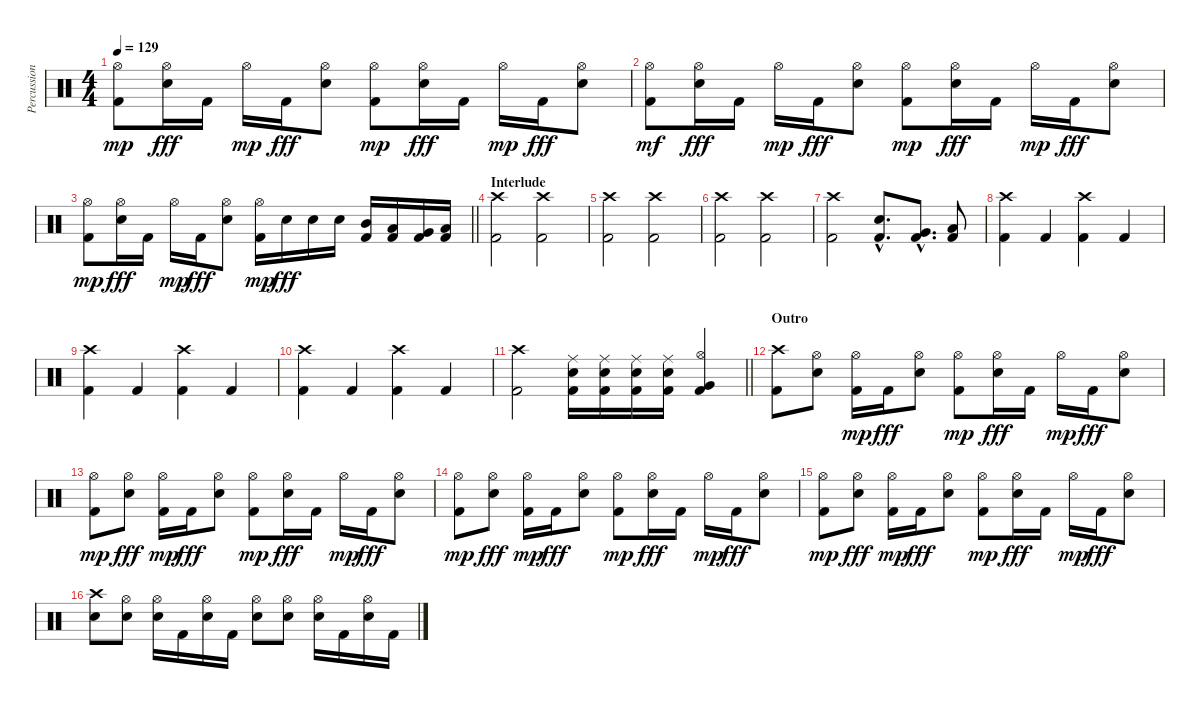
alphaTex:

\track ("Percussions" "Percussion") {instrument percussion}
\staff {score}
\articulation defaults
\ts (4 4)
\tempo 129
\clef neutral
\ks c
("Kick (hit) 2" "Hi-Hat (open)").8{dy mp} ("Snare (hit) 2" "Hi-Hat (open)").16{dy fff} "Kick (hit) 2".16 "Hi-Hat (open)".16{dy mp} "Kick (hit) 2".16{dy fff} ("Snare (hit) 2" "Hi-Hat (open)").8 ("Kick (hit) 2" "Hi-Hat (open)").8{dy mp} ("Snare (hit) 2" "Hi-Hat (open)").16{dy fff} "Kick (hit) 2".16 "Hi-Hat (open)".16{dy mp} "Kick (hit) 2".16{dy fff} ("Snare (hit) 2" "Hi-Hat (open)").8 |
("Kick (hit) 2" "Hi-Hat (open)").8{dy mf} ("Snare (hit) 2" "Hi-Hat (open)").16{dy fff} "Kick (hit) 2".16 "Hi-Hat (open)".16{dy mp} "Kick (hit) 2".16{dy fff} ("Snare (hit) 2" "Hi-Hat (open)").8 ("Kick (hit) 2" "Hi-Hat (open)").8{dy mp} ("Snare (hit) 2" "Hi-Hat (open)").16{dy fff} "Kick (hit) 2".16 "Hi-Hat (open)".16{dy mp} "Kick (hit) 2".16{dy fff} ("Snare (hit) 2" "Hi-Hat (open)").8 |
\barLineRight lightlight
("Kick (hit) 2" "Hi-Hat (open)").8{dy mp} ("Snare (hit) 2" "Hi-Hat (open)").16{dy fff} "Kick (hit) 2".16 "Hi-Hat (open)".16{dy mp} "Kick (hit) 2".16{dy fff} ("Snare (hit) 2" "Hi-Hat (open)").8 ("Kick (hit) 2" "Hi-Hat (open)").16{dy mp} "Snare (hit) 2".16{dy fff} "Snare (hit) 2".16 "Snare (hit) 2".16 ("Kick (hit) 2" "Mid Tom (hit)").16 ("Kick (hit) 2" "Low Tom (hit)").16 ("Kick (hit) 2" "Very Low Tom (hit)").16 ("Kick (hit) 2" "Low Floor Tom (hit)").16 |
\section ("" "Interlude")
("Kick (hit) 2" "Crash high (hit)").2 ("Kick (hit) 2" "Crash high (hit)").2 |
("Kick (hit) 2" "Crash high (hit)").2 ("Kick (hit) 2" "Crash high (hit)").2 |
("Kick (hit) 2" "Crash high (hit)").2 ("Kick (hit) 2" "Crash high (hit)").2 |
("Kick (hit) 2" "Crash high (hit)").2 ("Kick (hit) 2"{hac} "Snare (hit) 2"{hac}).8{d} ("Kick (hit) 2"{hac} "Very Low Tom (hit)"{hac}).8{d} ("Kick (hit) 2" "Low Floor Tom (hit)").8 |
("Kick (hit) 2" "Crash high (hit)").4 "Kick (hit) 2".4 ("Kick (hit) 2" "Crash high (hit)").4 "Kick (hit) 2".4 |
("Kick (hit) 2" "Crash high (hit)").4 "Kick (hit) 2".4 ("Kick (hit) 2" "Crash high (hit)").4 "Kick (hit) 2".4 |
("Kick (hit) 2" "Crash high (hit)").4 "Kick (hit) 2".4 ("Kick (hit) 2" "Crash high (hit)").4 "Kick (hit) 2".4 |
\barLineRight lightlight
("Kick (hit) 2" "Crash high (hit)").2 ("Kick (hit) 2" "Snare (hit) 2" "Ride (middle)").16 ("Kick (hit) 2" "Snare (hit) 2" "Ride (middle)").16 ("Kick (hit) 2" "Snare (hit) 2" "Ride (middle)").16 ("Kick (hit) 2" "Snare (hit) 2" "Ride (middle)").16 ("Kick (hit) 2" "Very Low Tom (hit)" "Hi-Hat (open)").4 |
\section ("" "Outro")
("Kick (hit) 2" "Crash high (hit)").8 ("Snare (hit) 2" "Hi-Hat (open)").8 ("Kick (hit) 2" "Hi-Hat (open)").16{dy mp} "Kick (hit) 2".16{dy fff} ("Snare (hit) 2" "Hi-Hat (open)").8 ("Kick (hit) 2" "Hi-Hat (open)").8{dy mp} ("Snare (hit) 2" "Hi-Hat (open)").16{dy fff} "Kick (hit) 2".16 "Hi-Hat (open)".16{dy mp} "Kick (hit) 2".16{dy fff} ("Snare (hit) 2" "Hi-Hat (open)").8 |
("Kick (hit) 2" "Hi-Hat (open)").8{dy mp} ("Snare (hit) 2" "Hi-Hat (open)").8{dy fff} ("Kick (hit) 2" "Hi-Hat (open)").16{dy mp} "Kick (hit) 2".16{dy fff} ("Snare (hit) 2" "Hi-Hat (open)").8 ("Kick (hit) 2" "Hi-Hat (open)").8{dy mp} ("Snare (hit) 2" "Hi-Hat (open)").16{dy fff} "Kick (hit) 2".16 "Hi-Hat (open)".16{dy mp} "Kick (hit) 2".16{dy fff} ("Snare (hit) 2" "Hi-Hat (open)").8 |
("Kick (hit) 2" "Hi-Hat (open)").8{dy mp} ("Snare (hit) 2" "Hi-Hat (open)").8{dy fff} ("Kick (hit) 2" "Hi-Hat (open)").16{dy mp} "Kick (hit) 2".16{dy fff} ("Snare (hit) 2" "Hi-Hat (open)").8 ("Kick (hit) 2" "Hi-Hat (open)").8{dy mp} ("Snare (hit) 2" "Hi-Hat (open)").16{dy fff} "Kick (hit) 2".16 "Hi-Hat (open)".16{dy mp} "Kick (hit) 2".16{dy fff} ("Snare (hit) 2" "Hi-Hat (open)").8 |
("Kick (hit) 2" "Hi-Hat (open)").8{dy mp} ("Snare (hit) 2" "Hi-Hat (open)").8{dy fff} ("Kick (hit) 2" "Hi-Hat (open)").16{dy mp} "Kick (hit) 2".16{dy fff} ("Snare (hit) 2" "Hi-Hat (open)").8 ("Kick (hit) 2" "Hi-Hat (open)").8{dy mp} ("Snare (hit) 2" "Hi-Hat (open)").16{dy fff} "Kick (hit) 2".16 "Hi-Hat (open)".16{dy mp} "Kick (hit) 2".16{dy fff} ("Snare (hit) 2" "Hi-Hat (open)").8 |
("Snare (hit) 2" "Crash high (hit)").8 ("Snare (hit) 2" "Hi-Hat (open)").8 ("Snare (hit) 2" "Hi-Hat (open)").16 "Kick (hit) 2".16 ("Snare (hit) 2" "Hi-Hat (open)").16 "Kick (hit) 2".16 ("Snare (hit) 2" "Hi-Hat (open)").8 ("Snare (hit) 2" "Hi-Hat (open)").8 ("Snare (hit) 2" "Hi-Hat (open)").16 "Kick (hit) 2".16 ("Snare (hit) 2" "Hi-Hat (open)").16 "Kick (hit) 2".16
